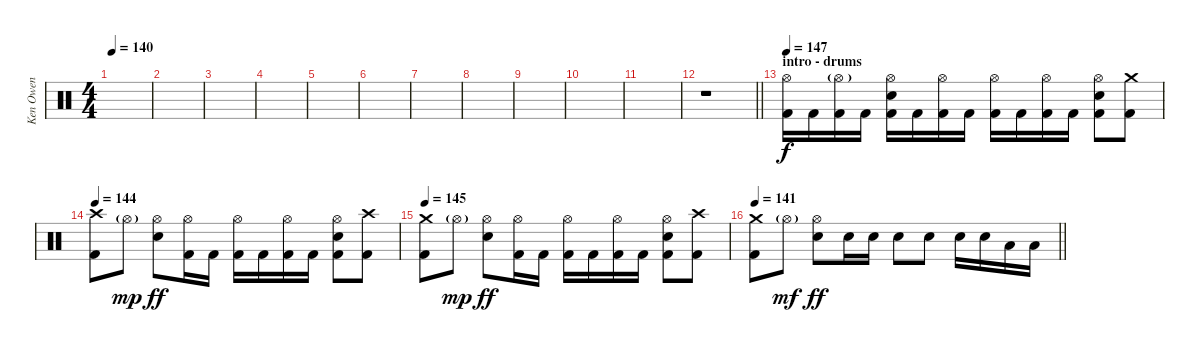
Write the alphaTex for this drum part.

\track ("Ken Owen" "Ken Owen") {instrument percussion}
\staff {score}
\articulation defaults
\ts (4 4)
\tempo 140
\tempo 139
\tempo 140
\clef neutral
\ks c
|
|
|
|
|
|
|
|
|
|
|
\barLineRight lightlight
r.1 |
\section ("" "intro - drums")
\tempo 147
("Hi-Hat (open)" "Kick (hit) 2").16 "Kick (hit) 2".16 ("Hi-Hat (open)"{g} "Kick (hit) 2").16 "Kick (hit) 2".16 ("Hi-Hat (open)" "Snare (hit) 2" "Kick (hit) 2").16 "Kick (hit) 2".16 ("Hi-Hat (open)" "Kick (hit) 2").16 "Kick (hit) 2".16 ("Hi-Hat (open)" "Kick (hit) 2").16 "Kick (hit) 2".16 ("Hi-Hat (open)" "Kick (hit) 2").16 "Kick (hit) 2".16 ("Hi-Hat (open)" "Snare (hit) 2" "Kick (hit) 2").8 ("Crash medium (hit)" "Kick (hit) 2").8 |
\tempo 144
("Crash high (hit)" "Kick (hit) 2").8 "Hi-Hat (open)"{g}.8{dy mp} ("Hi-Hat (open)" "Snare (hit) 2").8{dy ff} ("Hi-Hat (open)" "Kick (hit) 2").16 "Kick (hit) 2".16 ("Hi-Hat (open)" "Kick (hit) 2").16 "Kick (hit) 2".16 ("Hi-Hat (open)" "Kick (hit) 2").16 "Kick (hit) 2".16 ("Hi-Hat (open)" "Snare (hit) 2" "Kick (hit) 2").8 ("Crash high (hit)" "Kick (hit) 2").8 |
\tempo 145
("Crash medium (hit)" "Kick (hit) 2").8 "Hi-Hat (open)"{g}.8{dy mp} ("Hi-Hat (open)" "Snare (hit) 2").8{dy ff} ("Hi-Hat (open)" "Kick (hit) 2").16 "Kick (hit) 2".16 ("Hi-Hat (open)" "Kick (hit) 2").16 "Kick (hit) 2".16 ("Hi-Hat (open)" "Kick (hit) 2").16 "Kick (hit) 2".16 ("Hi-Hat (open)" "Snare (hit) 2" "Kick (hit) 2").8 ("Crash high (hit)" "Kick (hit) 2").8 |
\tempo 141
\barLineRight lightlight
("Crash medium (hit)" "Kick (hit) 2").8 "Hi-Hat (open)"{g}.8{dy mf} ("Hi-Hat (open)" "Snare (hit) 2").8{dy ff} "Snare (hit) 2".16 "Snare (hit) 2".16 "Snare (hit) 2".8 "Snare (hit) 2".8 "Snare (hit) 2".16 "Snare (hit) 2".16 "Low Tom (hit)".16 "Low Tom (hit)".16
